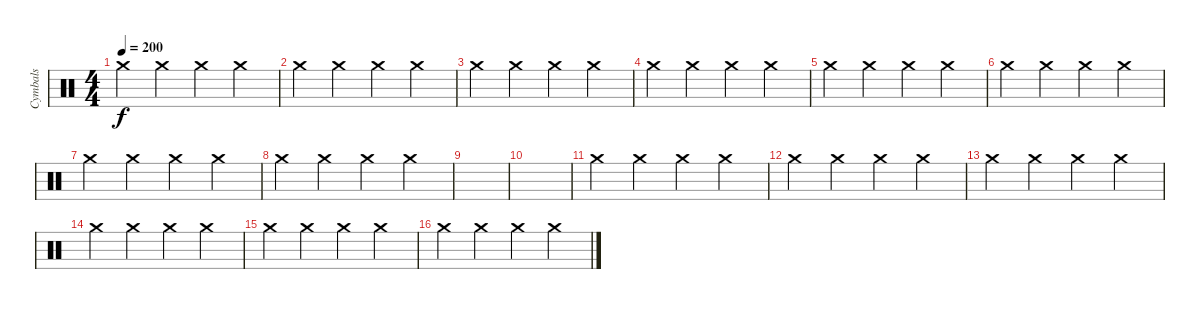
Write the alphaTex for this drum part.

\track ("Cymbals" "Cymbals") {instrument percussion}
\staff {score}
\articulation defaults
\ts (4 4)
\tempo 200
\clef neutral
\ks c "Crash medium (hit)".4{dy f} "Crash medium (hit)".4 "Crash medium (hit)".4 "Crash medium (hit)".4
|
"Crash medium (hit)".4 "Crash medium (hit)".4 "Crash medium (hit)".4 "Crash medium (hit)".4 |
"Crash medium (hit)".4 "Crash medium (hit)".4 "Crash medium (hit)".4 "Crash medium (hit)".4 |
"Crash medium (hit)".4 "Crash medium (hit)".4 "Crash medium (hit)".4 "Crash medium (hit)".4 |
"Crash medium (hit)".4 "Crash medium (hit)".4 "Crash medium (hit)".4 "Crash medium (hit)".4 |
"Crash medium (hit)".4 "Crash medium (hit)".4 "Crash medium (hit)".4 "Crash medium (hit)".4 |
"Crash medium (hit)".4 "Crash medium (hit)".4 "Crash medium (hit)".4 "Crash medium (hit)".4 |
"Crash medium (hit)".4 "Crash medium (hit)".4 "Crash medium (hit)".4 "Crash medium (hit)".4 |
|
|
"Crash medium (hit)".4 "Crash medium (hit)".4 "Crash medium (hit)".4 "Crash medium (hit)".4 |
"Crash medium (hit)".4 "Crash medium (hit)".4 "Crash medium (hit)".4 "Crash medium (hit)".4 |
"Crash medium (hit)".4 "Crash medium (hit)".4 "Crash medium (hit)".4 "Crash medium (hit)".4 |
"Crash medium (hit)".4 "Crash medium (hit)".4 "Crash medium (hit)".4 "Crash medium (hit)".4 |
"Crash medium (hit)".4 "Crash medium (hit)".4 "Crash medium (hit)".4 "Crash medium (hit)".4 |
"Crash medium (hit)".4 "Crash medium (hit)".4 "Crash medium (hit)".4 "Crash medium (hit)".4
